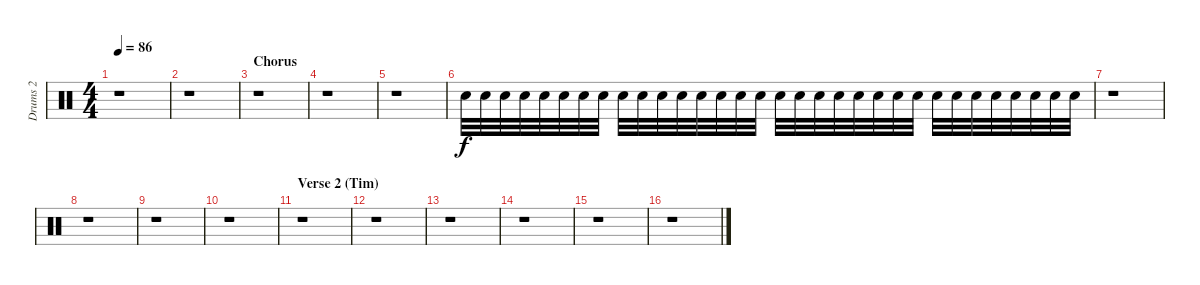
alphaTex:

\track ("Drums 2" "Drums 2") {instrument percussion}
\staff {score}
\articulation defaults
\ts (4 4)
\tempo 86
\clef neutral
\ks c
r.1{dy f} |
r.1 |
\section ("" "Chorus")
r.1 |
r.1 |
r.1 |
"Electric Snare (hit)".32 "Electric Snare (hit)".32 "Electric Snare (hit)".32 "Electric Snare (hit)".32 "Electric Snare (hit)".32 "Electric Snare (hit)".32 "Electric Snare (hit)".32 "Electric Snare (hit)".32 "Electric Snare (hit)".32 "Electric Snare (hit)".32 "Electric Snare (hit)".32 "Electric Snare (hit)".32 "Electric Snare (hit)".32 "Electric Snare (hit)".32 "Electric Snare (hit)".32 "Electric Snare (hit)".32 "Electric Snare (hit)".32 "Electric Snare (hit)".32 "Electric Snare (hit)".32 "Electric Snare (hit)".32 "Electric Snare (hit)".32 "Electric Snare (hit)".32 "Electric Snare (hit)".32 "Electric Snare (hit)".32 "Electric Snare (hit)".32 "Electric Snare (hit)".32 "Electric Snare (hit)".32 "Electric Snare (hit)".32 "Electric Snare (hit)".32 "Electric Snare (hit)".32 "Electric Snare (hit)".32 "Electric Snare (hit)".32 |
r.1 |
r.1 |
r.1 |
r.1 |
\section ("" "Verse 2 (Tim)")
r.1 |
r.1 |
r.1 |
r.1 |
r.1 |
r.1
